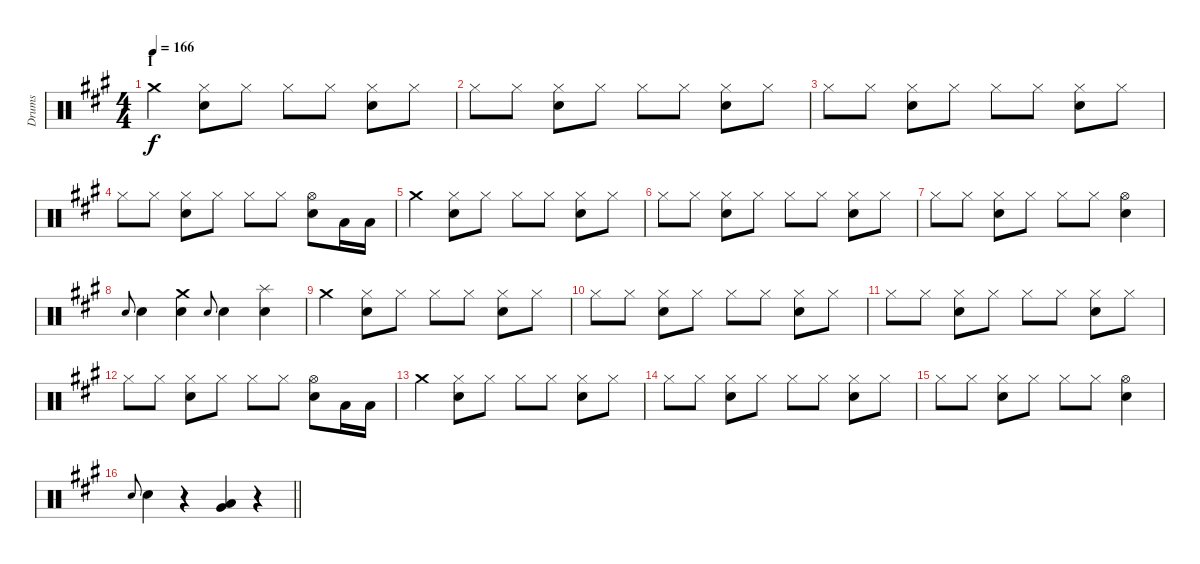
\track ("Drums" "Drums") {instrument percussion}
\staff {score}
\articulation defaults
\ts (4 4)
\section ("" "I")
\tempo 166
\clef neutral
\ks a "Crash medium (hit)".4{dy f}
("Hi-Hat (closed)" "Snare (hit) 2").8 "Hi-Hat (closed)".8 "Hi-Hat (closed)".8 "Hi-Hat (closed)".8 ("Hi-Hat (closed)" "Snare (hit) 2").8 "Hi-Hat (closed)".8 |
"Hi-Hat (closed)".8 "Hi-Hat (closed)".8 ("Hi-Hat (closed)" "Snare (hit) 2").8 "Hi-Hat (closed)".8 "Hi-Hat (closed)".8 "Hi-Hat (closed)".8 ("Hi-Hat (closed)" "Snare (hit) 2").8 "Hi-Hat (closed)".8 |
"Hi-Hat (closed)".8 "Hi-Hat (closed)".8 ("Hi-Hat (closed)" "Snare (hit) 2").8 "Hi-Hat (closed)".8 "Hi-Hat (closed)".8 "Hi-Hat (closed)".8 ("Hi-Hat (closed)" "Snare (hit) 2").8 "Hi-Hat (closed)".8 |
"Hi-Hat (closed)".8 "Hi-Hat (closed)".8 ("Hi-Hat (closed)" "Snare (hit) 2").8 "Hi-Hat (closed)".8 "Hi-Hat (closed)".8 "Hi-Hat (closed)".8 ("Hi-Hat (open)" "Snare (hit) 2").8 "Low Tom (hit)".16 "Low Tom (hit)".16 |
"Crash medium (hit)".4 ("Hi-Hat (closed)" "Snare (hit) 2").8 "Hi-Hat (closed)".8 "Hi-Hat (closed)".8 "Hi-Hat (closed)".8 ("Hi-Hat (closed)" "Snare (hit) 2").8 "Hi-Hat (closed)".8 |
"Hi-Hat (closed)".8 "Hi-Hat (closed)".8 ("Hi-Hat (closed)" "Snare (hit) 2").8 "Hi-Hat (closed)".8 "Hi-Hat (closed)".8 "Hi-Hat (closed)".8 ("Hi-Hat (closed)" "Snare (hit) 2").8 "Hi-Hat (closed)".8 |
"Hi-Hat (closed)".8 "Hi-Hat (closed)".8 ("Hi-Hat (closed)" "Snare (hit) 2").8 "Hi-Hat (closed)".8 "Hi-Hat (closed)".8 "Hi-Hat (closed)".8 ("Hi-Hat (open)" "Snare (hit) 2").4 |
"Snare (hit) 2".8{gr onbeat} "Snare (hit) 2".4 ("Crash medium (hit)" "Snare (hit) 2").4 "Snare (hit) 2".8{gr onbeat} "Snare (hit) 2".4 ("Splash (hit)" "Snare (hit) 2").4 |
"Crash medium (hit)".4 ("Hi-Hat (closed)" "Snare (hit) 2").8 "Hi-Hat (closed)".8 "Hi-Hat (closed)".8 "Hi-Hat (closed)".8 ("Hi-Hat (closed)" "Snare (hit) 2").8 "Hi-Hat (closed)".8 |
"Hi-Hat (closed)".8 "Hi-Hat (closed)".8 ("Hi-Hat (closed)" "Snare (hit) 2").8 "Hi-Hat (closed)".8 "Hi-Hat (closed)".8 "Hi-Hat (closed)".8 ("Hi-Hat (closed)" "Snare (hit) 2").8 "Hi-Hat (closed)".8 |
"Hi-Hat (closed)".8 "Hi-Hat (closed)".8 ("Hi-Hat (closed)" "Snare (hit) 2").8 "Hi-Hat (closed)".8 "Hi-Hat (closed)".8 "Hi-Hat (closed)".8 ("Hi-Hat (closed)" "Snare (hit) 2").8 "Hi-Hat (closed)".8 |
"Hi-Hat (closed)".8 "Hi-Hat (closed)".8 ("Hi-Hat (closed)" "Snare (hit) 2").8 "Hi-Hat (closed)".8 "Hi-Hat (closed)".8 "Hi-Hat (closed)".8 ("Hi-Hat (open)" "Snare (hit) 2").8 "Low Tom (hit)".16 "Low Tom (hit)".16 |
"Crash medium (hit)".4 ("Hi-Hat (closed)" "Snare (hit) 2").8 "Hi-Hat (closed)".8 "Hi-Hat (closed)".8 "Hi-Hat (closed)".8 ("Hi-Hat (closed)" "Snare (hit) 2").8 "Hi-Hat (closed)".8 |
"Hi-Hat (closed)".8 "Hi-Hat (closed)".8 ("Hi-Hat (closed)" "Snare (hit) 2").8 "Hi-Hat (closed)".8 "Hi-Hat (closed)".8 "Hi-Hat (closed)".8 ("Hi-Hat (closed)" "Snare (hit) 2").8 "Hi-Hat (closed)".8 |
"Hi-Hat (closed)".8 "Hi-Hat (closed)".8 ("Hi-Hat (closed)" "Snare (hit) 2").8 "Hi-Hat (closed)".8 "Hi-Hat (closed)".8 "Hi-Hat (closed)".8 ("Hi-Hat (open)" "Snare (hit) 2").4 |
\barLineRight lightlight "Snare (hit) 2".8{gr onbeat} "Snare (hit) 2".4
r.4 ("Low Tom (hit)" "Very Low Tom (hit)").4 r.4
